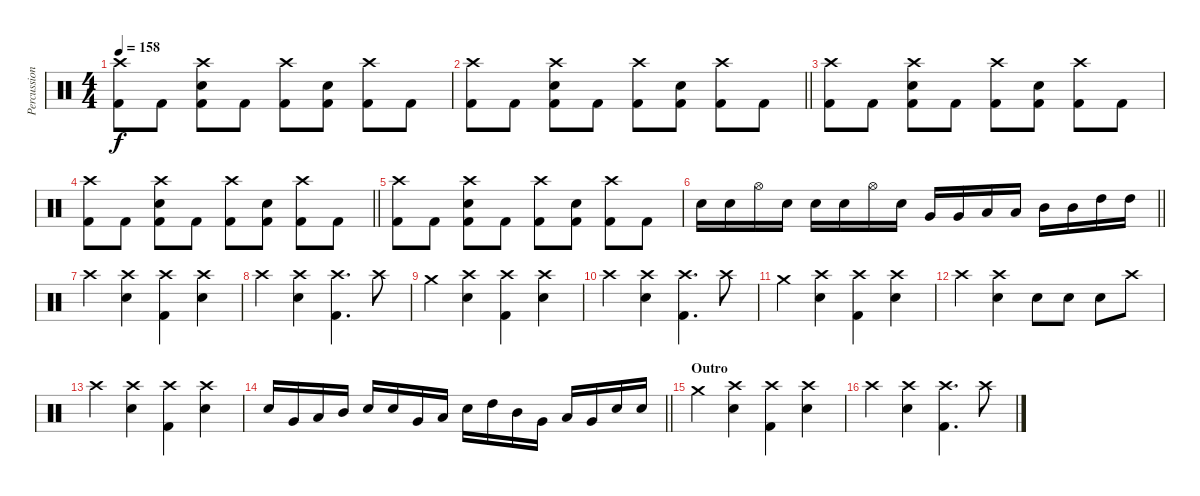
\track ("Percussion" "Percussion") {instrument percussion}
\staff {score}
\articulation defaults
\ts (4 4)
\tempo 158
\clef neutral
\ks c
("Crash high (hit)" "Kick (hit) 2").8{dy f} "Kick (hit) 2".8 ("Crash high (hit)" "Electric Snare (hit)" "Kick (hit) 2").8 "Kick (hit) 2".8 ("Crash high (hit)" "Kick (hit) 2").8 ("Electric Snare (hit)" "Kick (hit) 2").8 ("Crash high (hit)" "Kick (hit) 2").8 "Kick (hit) 2".8 |
\barLineRight lightlight
("Crash high (hit)" "Kick (hit) 2").8 "Kick (hit) 2".8 ("Crash high (hit)" "Electric Snare (hit)" "Kick (hit) 2").8 "Kick (hit) 2".8 ("Crash high (hit)" "Kick (hit) 2").8 ("Electric Snare (hit)" "Kick (hit) 2").8 ("Crash high (hit)" "Kick (hit) 2").8 "Kick (hit) 2".8 |
("Crash high (hit)" "Kick (hit) 2").8 "Kick (hit) 2".8 ("Crash high (hit)" "Electric Snare (hit)" "Kick (hit) 2").8 "Kick (hit) 2".8 ("Crash high (hit)" "Kick (hit) 2").8 ("Electric Snare (hit)" "Kick (hit) 2").8 ("Crash high (hit)" "Kick (hit) 2").8 "Kick (hit) 2".8 |
\barLineRight lightlight
("Crash high (hit)" "Kick (hit) 2").8 "Kick (hit) 2".8 ("Crash high (hit)" "Electric Snare (hit)" "Kick (hit) 2").8 "Kick (hit) 2".8 ("Crash high (hit)" "Kick (hit) 2").8 ("Electric Snare (hit)" "Kick (hit) 2").8 ("Crash high (hit)" "Kick (hit) 2").8 "Kick (hit) 2".8 |
("Crash high (hit)" "Kick (hit) 2").8 "Kick (hit) 2".8 ("Crash high (hit)" "Electric Snare (hit)" "Kick (hit) 2").8 "Kick (hit) 2".8 ("Crash high (hit)" "Kick (hit) 2").8 ("Electric Snare (hit)" "Kick (hit) 2").8 ("Crash high (hit)" "Kick (hit) 2").8 "Kick (hit) 2".8 |
\barLineRight lightlight "Electric Snare (hit)".16 "Electric Snare (hit)".16 "Hi-Hat (open)".16 "Electric Snare (hit)".16 "Electric Snare (hit)".16 "Electric Snare (hit)".16 "Hi-Hat (open)".16 "Electric Snare (hit)".16 "Very Low Tom (hit)".16 "Very Low Tom (hit)".16 "Low Tom (hit)".16 "Low Tom (hit)".16 "Mid Tom (hit)".16 "Mid Tom (hit)".16 "High Tom (hit)".16 "High Tom (hit)".16
|
"Crash high (hit)".4 ("Crash high (hit)" "Electric Snare (hit)").4 ("Crash high (hit)" "Kick (hit) 2").4 ("Crash high (hit)" "Electric Snare (hit)").4 |
"Crash high (hit)".4 ("Crash high (hit)" "Electric Snare (hit)").4 ("Crash high (hit)" "Kick (hit) 2").4{d} "Crash high (hit)".8 |
"Crash medium (hit)".4 ("Crash high (hit)" "Electric Snare (hit)").4 ("Crash high (hit)" "Kick (hit) 2").4 ("Crash high (hit)" "Electric Snare (hit)").4 |
"Crash high (hit)".4 ("Crash high (hit)" "Electric Snare (hit)").4 ("Crash high (hit)" "Kick (hit) 2").4{d} "Crash high (hit)".8 |
"Crash medium (hit)".4 ("Crash high (hit)" "Electric Snare (hit)").4 ("Crash high (hit)" "Kick (hit) 2").4 ("Crash high (hit)" "Electric Snare (hit)").4 |
"Crash high (hit)".4 ("Crash high (hit)" "Electric Snare (hit)").4 "Electric Snare (hit)".8 "Electric Snare (hit)".8 "Electric Snare (hit)".8 "Crash high (hit)".8 |
"Crash high (hit)".4 ("Crash high (hit)" "Electric Snare (hit)").4 ("Crash high (hit)" "Kick (hit) 2").4 ("Crash high (hit)" "Electric Snare (hit)").4 |
\barLineRight lightlight "Electric Snare (hit)".16 "Very Low Tom (hit)".16 "Low Tom (hit)".16 "Mid Tom (hit)".16 "Electric Snare (hit)".16 "Electric Snare (hit)".16 "Very Low Tom (hit)".16 "Low Tom (hit)".16 "Electric Snare (hit)".16 "High Tom (hit)".16 "Mid Tom (hit)".16 "Very Low Tom (hit)".16 "Low Tom (hit)".16 "Very Low Tom (hit)".16 "Electric Snare (hit)".16 "Electric Snare (hit)".16
|
\section ("" "Outro")
"Crash medium (hit)".4 ("Crash high (hit)" "Electric Snare (hit)").4 ("Crash high (hit)" "Kick (hit) 2").4 ("Crash high (hit)" "Electric Snare (hit)").4 |
"Crash high (hit)".4 ("Crash high (hit)" "Electric Snare (hit)").4 ("Crash high (hit)" "Kick (hit) 2").4{d} "Crash high (hit)".8
